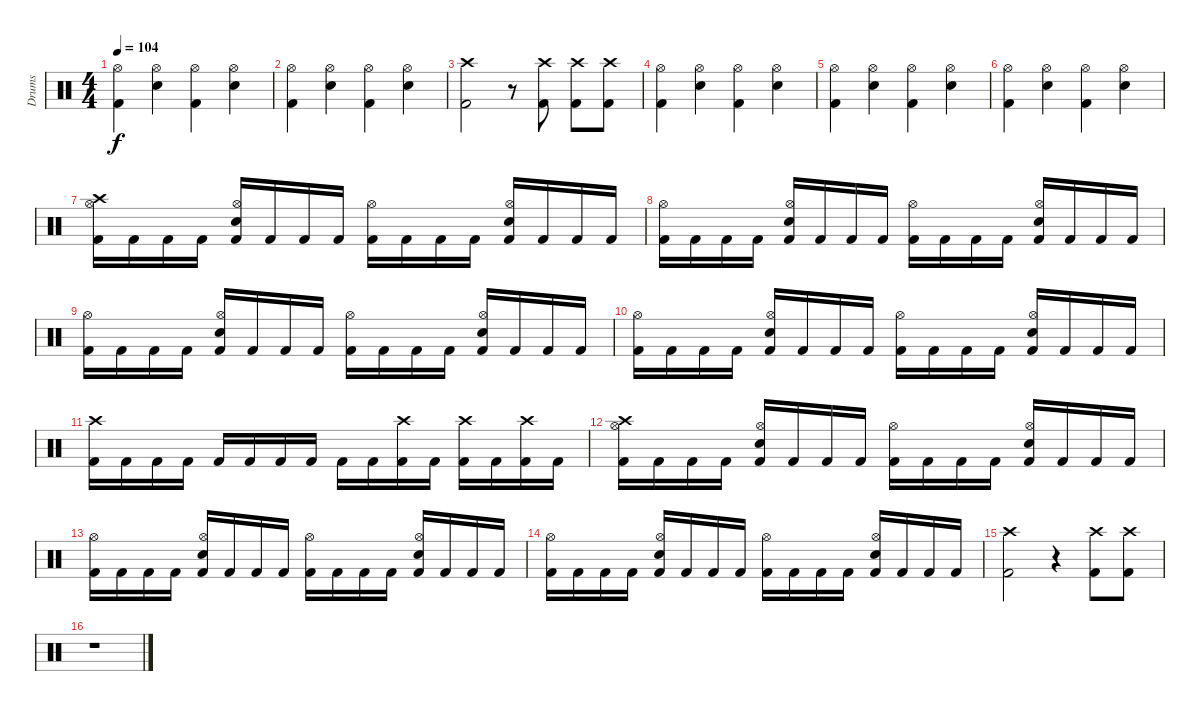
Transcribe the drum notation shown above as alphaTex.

\track ("Drums" "Drums") {instrument percussion}
\staff {score}
\articulation defaults
\ts (4 4)
\tempo 104
\clef neutral
\ks c
("Kick (hit) 2" "Hi-Hat (open)").4{dy f} ("Snare (hit) 2" "Hi-Hat (open)").4 ("Kick (hit) 2" "Hi-Hat (open)").4 ("Snare (hit) 2" "Hi-Hat (open)").4 |
("Kick (hit) 2" "Hi-Hat (open)").4 ("Snare (hit) 2" "Hi-Hat (open)").4 ("Kick (hit) 2" "Hi-Hat (open)").4 ("Snare (hit) 2" "Hi-Hat (open)").4 |
("Kick (hit) 2" "Crash high (hit)").2 r.8 ("Kick (hit) 2" "Crash high (hit)").8 ("Kick (hit) 2" "Crash high (hit)").8 ("Kick (hit) 2" "Crash high (hit)").8 |
("Kick (hit) 2" "Hi-Hat (open)").4 ("Snare (hit) 2" "Hi-Hat (open)").4 ("Kick (hit) 2" "Hi-Hat (open)").4 ("Snare (hit) 2" "Hi-Hat (open)").4 |
("Kick (hit) 2" "Hi-Hat (open)").4 ("Snare (hit) 2" "Hi-Hat (open)").4 ("Kick (hit) 2" "Hi-Hat (open)").4 ("Snare (hit) 2" "Hi-Hat (open)").4 |
("Kick (hit) 2" "Hi-Hat (open)").4 ("Snare (hit) 2" "Hi-Hat (open)").4 ("Kick (hit) 2" "Hi-Hat (open)").4 ("Snare (hit) 2" "Hi-Hat (open)").4 |
("Kick (hit) 2" "Hi-Hat (open)" "Crash high (hit)").16 "Kick (hit) 2".16 "Kick (hit) 2".16 "Kick (hit) 2".16 ("Snare (hit) 2" "Kick (hit) 2" "Hi-Hat (open)").16 "Kick (hit) 2".16 "Kick (hit) 2".16 "Kick (hit) 2".16 ("Kick (hit) 2" "Hi-Hat (open)").16 "Kick (hit) 2".16 "Kick (hit) 2".16 "Kick (hit) 2".16 ("Snare (hit) 2" "Kick (hit) 2" "Hi-Hat (open)").16 "Kick (hit) 2".16 "Kick (hit) 2".16 "Kick (hit) 2".16 |
("Kick (hit) 2" "Hi-Hat (open)").16 "Kick (hit) 2".16 "Kick (hit) 2".16 "Kick (hit) 2".16 ("Snare (hit) 2" "Kick (hit) 2" "Hi-Hat (open)").16 "Kick (hit) 2".16 "Kick (hit) 2".16 "Kick (hit) 2".16 ("Kick (hit) 2" "Hi-Hat (open)").16 "Kick (hit) 2".16 "Kick (hit) 2".16 "Kick (hit) 2".16 ("Snare (hit) 2" "Kick (hit) 2" "Hi-Hat (open)").16 "Kick (hit) 2".16 "Kick (hit) 2".16 "Kick (hit) 2".16 |
("Kick (hit) 2" "Hi-Hat (open)").16 "Kick (hit) 2".16 "Kick (hit) 2".16 "Kick (hit) 2".16 ("Snare (hit) 2" "Kick (hit) 2" "Hi-Hat (open)").16 "Kick (hit) 2".16 "Kick (hit) 2".16 "Kick (hit) 2".16 ("Kick (hit) 2" "Hi-Hat (open)").16 "Kick (hit) 2".16 "Kick (hit) 2".16 "Kick (hit) 2".16 ("Snare (hit) 2" "Kick (hit) 2" "Hi-Hat (open)").16 "Kick (hit) 2".16 "Kick (hit) 2".16 "Kick (hit) 2".16 |
("Kick (hit) 2" "Hi-Hat (open)").16 "Kick (hit) 2".16 "Kick (hit) 2".16 "Kick (hit) 2".16 ("Snare (hit) 2" "Kick (hit) 2" "Hi-Hat (open)").16 "Kick (hit) 2".16 "Kick (hit) 2".16 "Kick (hit) 2".16 ("Kick (hit) 2" "Hi-Hat (open)").16 "Kick (hit) 2".16 "Kick (hit) 2".16 "Kick (hit) 2".16 ("Snare (hit) 2" "Kick (hit) 2" "Hi-Hat (open)").16 "Kick (hit) 2".16 "Kick (hit) 2".16 "Kick (hit) 2".16 |
("Kick (hit) 2" "Crash high (hit)").16 "Kick (hit) 2".16 "Kick (hit) 2".16 "Kick (hit) 2".16 "Kick (hit) 2".16 "Kick (hit) 2".16 "Kick (hit) 2".16 "Kick (hit) 2".16 "Kick (hit) 2".16 "Kick (hit) 2".16 ("Kick (hit) 2" "Crash high (hit)").16 "Kick (hit) 2".16 ("Kick (hit) 2" "Crash high (hit)").16 "Kick (hit) 2".16 ("Kick (hit) 2" "Crash high (hit)").16 "Kick (hit) 2".16 |
("Kick (hit) 2" "Hi-Hat (open)" "Crash high (hit)").16 "Kick (hit) 2".16 "Kick (hit) 2".16 "Kick (hit) 2".16 ("Snare (hit) 2" "Kick (hit) 2" "Hi-Hat (open)").16 "Kick (hit) 2".16 "Kick (hit) 2".16 "Kick (hit) 2".16 ("Kick (hit) 2" "Hi-Hat (open)").16 "Kick (hit) 2".16 "Kick (hit) 2".16 "Kick (hit) 2".16 ("Snare (hit) 2" "Kick (hit) 2" "Hi-Hat (open)").16 "Kick (hit) 2".16 "Kick (hit) 2".16 "Kick (hit) 2".16 |
("Kick (hit) 2" "Hi-Hat (open)").16 "Kick (hit) 2".16 "Kick (hit) 2".16 "Kick (hit) 2".16 ("Snare (hit) 2" "Kick (hit) 2" "Hi-Hat (open)").16 "Kick (hit) 2".16 "Kick (hit) 2".16 "Kick (hit) 2".16 ("Kick (hit) 2" "Hi-Hat (open)").16 "Kick (hit) 2".16 "Kick (hit) 2".16 "Kick (hit) 2".16 ("Snare (hit) 2" "Kick (hit) 2" "Hi-Hat (open)").16 "Kick (hit) 2".16 "Kick (hit) 2".16 "Kick (hit) 2".16 |
("Kick (hit) 2" "Hi-Hat (open)").16 "Kick (hit) 2".16 "Kick (hit) 2".16 "Kick (hit) 2".16 ("Snare (hit) 2" "Kick (hit) 2" "Hi-Hat (open)").16 "Kick (hit) 2".16 "Kick (hit) 2".16 "Kick (hit) 2".16 ("Kick (hit) 2" "Hi-Hat (open)").16 "Kick (hit) 2".16 "Kick (hit) 2".16 "Kick (hit) 2".16 ("Snare (hit) 2" "Kick (hit) 2" "Hi-Hat (open)").16 "Kick (hit) 2".16 "Kick (hit) 2".16 "Kick (hit) 2".16 |
("Kick (hit) 2" "Crash high (hit)").2 r.4 ("Kick (hit) 2" "Crash high (hit)").8 ("Kick (hit) 2" "Crash high (hit)").8 |
r.1
